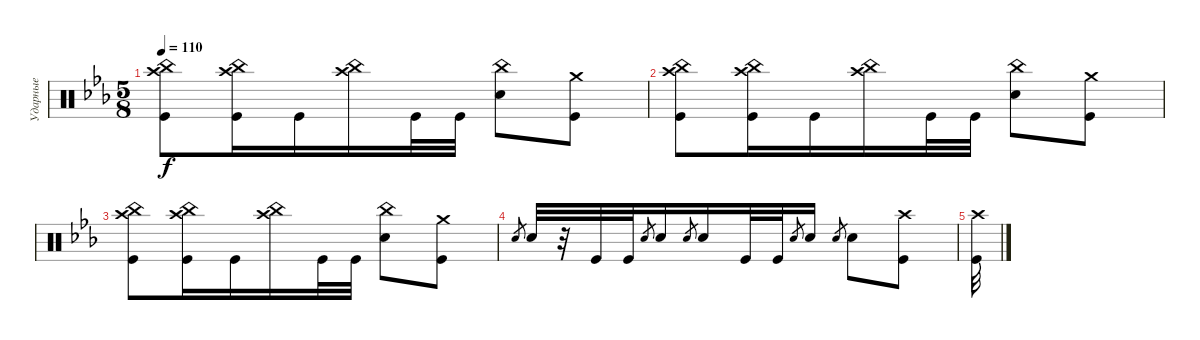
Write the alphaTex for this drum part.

\track ("Ударные" "Ударные") {instrument percussion}
\staff {score}
\articulation defaults
\ts (5 8)
\tempo 110
\clef neutral
\ks cminor
("Kick (hit)" "Crash high (hit)" "China (hit)").8{dy f} ("Kick (hit)" "Crash high (hit)" "China (hit)").16 "Kick (hit)".16 ("Crash high (hit)" "China (hit)").16 "Kick (hit)".32 "Kick (hit)".32 ("Snare (hit) 2" "China (hit)").8 ("Kick (hit)" "Crash medium (hit)").8 |
("Kick (hit)" "Crash high (hit)" "China (hit)").8 ("Kick (hit)" "Crash high (hit)" "China (hit)").16 "Kick (hit)".16 ("Crash high (hit)" "China (hit)").16 "Kick (hit)".32 "Kick (hit)".32 ("Snare (hit) 2" "China (hit)").8 ("Kick (hit)" "Crash medium (hit)").8 |
("Kick (hit)" "Crash high (hit)" "China (hit)").8 ("Kick (hit)" "Crash high (hit)" "China (hit)").16 "Kick (hit)".16 ("Crash high (hit)" "China (hit)").16 "Kick (hit)".32 "Kick (hit)".32 ("Snare (hit) 2" "China (hit)").8 ("Kick (hit)" "Crash medium (hit)").8 |
"Snare (hit) 2".8{gr} "Snare (hit) 2".32 r.32 "Kick (hit)".32 "Kick (hit)".32 "Snare (hit) 2".8{gr} "Snare (hit) 2".16 "Snare (hit) 2".8{gr} "Snare (hit) 2".16 "Kick (hit)".32 "Kick (hit)".32 "Snare (hit) 2".8{gr} "Snare (hit) 2".16 "Snare (hit) 2".8{gr} "Snare (hit) 2".8 ("Kick (hit)" "Crash high (hit)").8 |
("Kick (hit)" "Crash high (hit)").32
